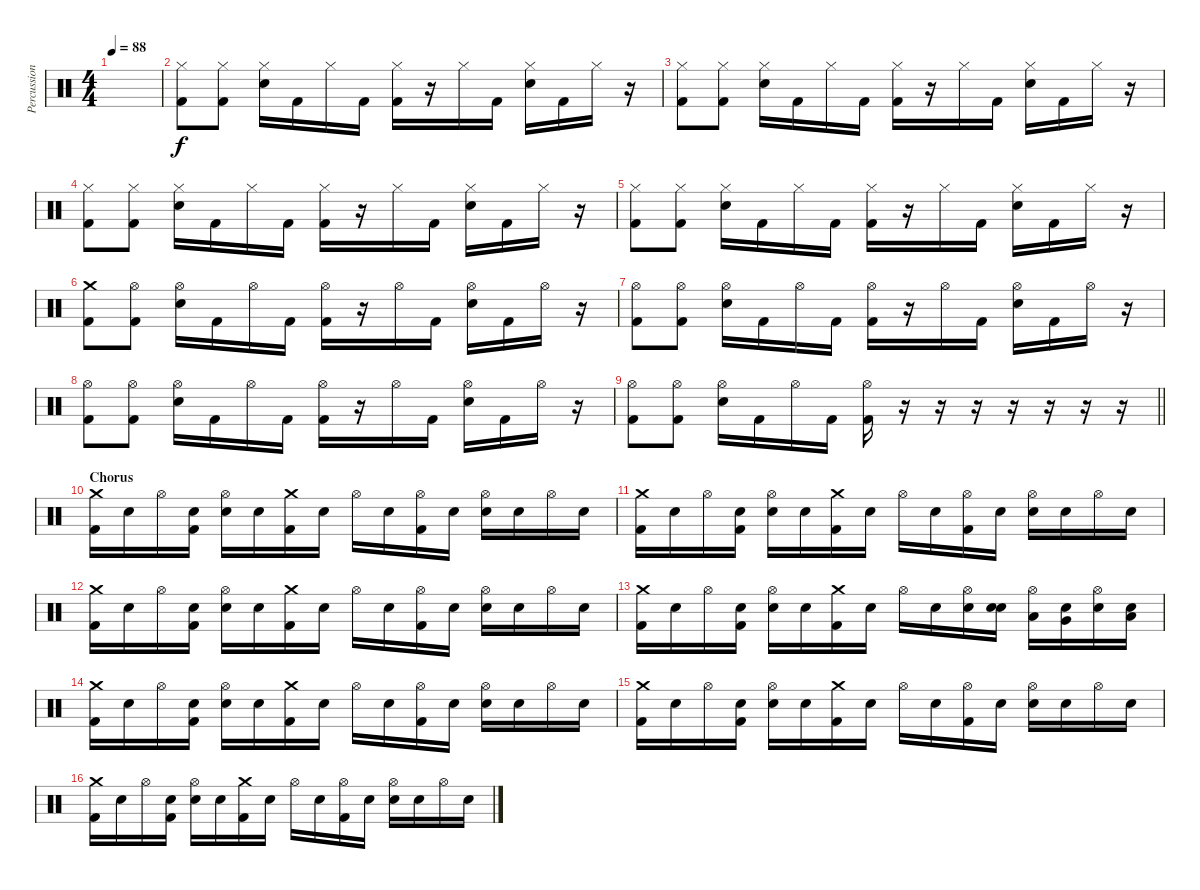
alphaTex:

\track ("Percussion" "Percussion") {instrument percussion}
\staff {score}
\articulation defaults
\ts (4 4)
\tempo 88
\clef neutral
\ks c
|
("Hi-Hat (closed)" "Kick (hit) 2").8 ("Hi-Hat (closed)" "Kick (hit) 2").8 ("Hi-Hat (closed)" "Electric Snare (hit)").16 "Kick (hit) 2".16 "Hi-Hat (closed)".16 "Kick (hit) 2".16 ("Hi-Hat (closed)" "Kick (hit) 2").16 r.16 "Hi-Hat (closed)".16 "Kick (hit) 2".16 ("Hi-Hat (closed)" "Electric Snare (hit)").16 "Kick (hit) 2".16 "Hi-Hat (closed)".16 r.16 |
("Hi-Hat (closed)" "Kick (hit) 2").8 ("Hi-Hat (closed)" "Kick (hit) 2").8 ("Hi-Hat (closed)" "Electric Snare (hit)").16 "Kick (hit) 2".16 "Hi-Hat (closed)".16 "Kick (hit) 2".16 ("Hi-Hat (closed)" "Kick (hit) 2").16 r.16 "Hi-Hat (closed)".16 "Kick (hit) 2".16 ("Hi-Hat (closed)" "Electric Snare (hit)").16 "Kick (hit) 2".16 "Hi-Hat (closed)".16 r.16 |
("Hi-Hat (closed)" "Kick (hit) 2").8 ("Hi-Hat (closed)" "Kick (hit) 2").8 ("Hi-Hat (closed)" "Electric Snare (hit)").16 "Kick (hit) 2".16 "Hi-Hat (closed)".16 "Kick (hit) 2".16 ("Hi-Hat (closed)" "Kick (hit) 2").16 r.16 "Hi-Hat (closed)".16 "Kick (hit) 2".16 ("Hi-Hat (closed)" "Electric Snare (hit)").16 "Kick (hit) 2".16 "Hi-Hat (closed)".16 r.16 |
("Hi-Hat (closed)" "Kick (hit) 2").8 ("Hi-Hat (closed)" "Kick (hit) 2").8 ("Hi-Hat (closed)" "Electric Snare (hit)").16 "Kick (hit) 2".16 "Hi-Hat (closed)".16 "Kick (hit) 2".16 ("Hi-Hat (closed)" "Kick (hit) 2").16 r.16 "Hi-Hat (closed)".16 "Kick (hit) 2".16 ("Hi-Hat (closed)" "Electric Snare (hit)").16 "Kick (hit) 2".16 "Hi-Hat (closed)".16 r.16 |
("Crash medium (hit)" "Kick (hit) 2").8 ("Hi-Hat (open)" "Kick (hit) 2").8 ("Hi-Hat (open)" "Electric Snare (hit)").16 "Kick (hit) 2".16 "Hi-Hat (open)".16 "Kick (hit) 2".16 ("Hi-Hat (open)" "Kick (hit) 2").16 r.16 "Hi-Hat (open)".16 "Kick (hit) 2".16 ("Hi-Hat (open)" "Electric Snare (hit)").16 "Kick (hit) 2".16 "Hi-Hat (open)".16 r.16 |
("Hi-Hat (open)" "Kick (hit) 2").8 ("Hi-Hat (open)" "Kick (hit) 2").8 ("Hi-Hat (open)" "Electric Snare (hit)").16 "Kick (hit) 2".16 "Hi-Hat (open)".16 "Kick (hit) 2".16 ("Hi-Hat (open)" "Kick (hit) 2").16 r.16 "Hi-Hat (open)".16 "Kick (hit) 2".16 ("Hi-Hat (open)" "Electric Snare (hit)").16 "Kick (hit) 2".16 "Hi-Hat (open)".16 r.16 |
("Hi-Hat (open)" "Kick (hit) 2").8 ("Hi-Hat (open)" "Kick (hit) 2").8 ("Hi-Hat (open)" "Electric Snare (hit)").16 "Kick (hit) 2".16 "Hi-Hat (open)".16 "Kick (hit) 2".16 ("Hi-Hat (open)" "Kick (hit) 2").16 r.16 "Hi-Hat (open)".16 "Kick (hit) 2".16 ("Hi-Hat (open)" "Electric Snare (hit)").16 "Kick (hit) 2".16 "Hi-Hat (open)".16 r.16 |
\barLineRight lightlight
("Hi-Hat (open)" "Kick (hit) 2").8 ("Hi-Hat (open)" "Kick (hit) 2").8 ("Hi-Hat (open)" "Electric Snare (hit)").16 "Kick (hit) 2".16 "Hi-Hat (open)".16 "Kick (hit) 2".16 ("Hi-Hat (open)" "Kick (hit) 2").16 r.16 r.16 r.16 r.16 r.16 r.16 r.16 |
\section ("" "Chorus")
("Crash medium (hit)" "Kick (hit) 2").16 "Snare (hit)".16 "Hi-Hat (open)".16 ("Snare (hit)" "Kick (hit) 2").16 ("Hi-Hat (open)" "Electric Snare (hit)").16 "Snare (hit)".16 ("Crash medium (hit)" "Kick (hit) 2").16 "Snare (hit)".16 "Hi-Hat (open)".16 "Snare (hit)".16 ("Hi-Hat (open)" "Kick (hit) 2").16 "Snare (hit)".16 ("Hi-Hat (open)" "Electric Snare (hit)").16 "Snare (hit)".16 "Hi-Hat (open)".16 "Snare (hit)".16 |
("Crash medium (hit)" "Kick (hit) 2").16 "Snare (hit)".16 "Hi-Hat (open)".16 ("Snare (hit)" "Kick (hit) 2").16 ("Hi-Hat (open)" "Electric Snare (hit)").16 "Snare (hit)".16 ("Crash medium (hit)" "Kick (hit) 2").16 "Snare (hit)".16 "Hi-Hat (open)".16 "Snare (hit)".16 ("Hi-Hat (open)" "Kick (hit) 2").16 "Snare (hit)".16 ("Hi-Hat (open)" "Electric Snare (hit)").16 "Snare (hit)".16 "Hi-Hat (open)".16 "Snare (hit)".16 |
("Crash medium (hit)" "Kick (hit) 2").16 "Snare (hit)".16 "Hi-Hat (open)".16 ("Snare (hit)" "Kick (hit) 2").16 ("Hi-Hat (open)" "Electric Snare (hit)").16 "Snare (hit)".16 ("Crash medium (hit)" "Kick (hit) 2").16 "Snare (hit)".16 "Hi-Hat (open)".16 "Snare (hit)".16 ("Hi-Hat (open)" "Kick (hit) 2").16 "Snare (hit)".16 ("Hi-Hat (open)" "Electric Snare (hit)").16 "Snare (hit)".16 "Hi-Hat (open)".16 "Snare (hit)".16 |
("Crash medium (hit)" "Kick (hit) 2").16 "Snare (hit)".16 "Hi-Hat (open)".16 ("Snare (hit)" "Kick (hit) 2").16 ("Hi-Hat (open)" "Electric Snare (hit)").16 "Snare (hit)".16 ("Crash medium (hit)" "Kick (hit) 2").16 "Snare (hit)".16 "Hi-Hat (open)".16 "Snare (hit)".16 ("Hi-Hat (open)" "Electric Snare (hit)").16 ("Snare (hit)" "Electric Snare (hit)").16 ("Hi-Hat (open)" "Low Tom (hit)").16 ("Snare (hit)" "Very Low Tom (hit)").16 ("Hi-Hat (open)" "Electric Snare (hit)").16 ("Snare (hit)" "Low Floor Tom (hit)").16 |
("Crash medium (hit)" "Kick (hit) 2").16 "Snare (hit)".16 "Hi-Hat (open)".16 ("Snare (hit)" "Kick (hit) 2").16 ("Hi-Hat (open)" "Electric Snare (hit)").16 "Snare (hit)".16 ("Crash medium (hit)" "Kick (hit) 2").16 "Snare (hit)".16 "Hi-Hat (open)".16 "Snare (hit)".16 ("Hi-Hat (open)" "Kick (hit) 2").16 "Snare (hit)".16 ("Hi-Hat (open)" "Electric Snare (hit)").16 "Snare (hit)".16 "Hi-Hat (open)".16 "Snare (hit)".16 |
("Crash medium (hit)" "Kick (hit) 2").16 "Snare (hit)".16 "Hi-Hat (open)".16 ("Snare (hit)" "Kick (hit) 2").16 ("Hi-Hat (open)" "Electric Snare (hit)").16 "Snare (hit)".16 ("Crash medium (hit)" "Kick (hit) 2").16 "Snare (hit)".16 "Hi-Hat (open)".16 "Snare (hit)".16 ("Hi-Hat (open)" "Kick (hit) 2").16 "Snare (hit)".16 ("Hi-Hat (open)" "Electric Snare (hit)").16 "Snare (hit)".16 "Hi-Hat (open)".16 "Snare (hit)".16 |
("Crash medium (hit)" "Kick (hit) 2").16 "Snare (hit)".16 "Hi-Hat (open)".16 ("Snare (hit)" "Kick (hit) 2").16 ("Hi-Hat (open)" "Electric Snare (hit)").16 "Snare (hit)".16 ("Crash medium (hit)" "Kick (hit) 2").16 "Snare (hit)".16 "Hi-Hat (open)".16 "Snare (hit)".16 ("Hi-Hat (open)" "Kick (hit) 2").16 "Snare (hit)".16 ("Hi-Hat (open)" "Electric Snare (hit)").16 "Snare (hit)".16 "Hi-Hat (open)".16 "Snare (hit)".16
